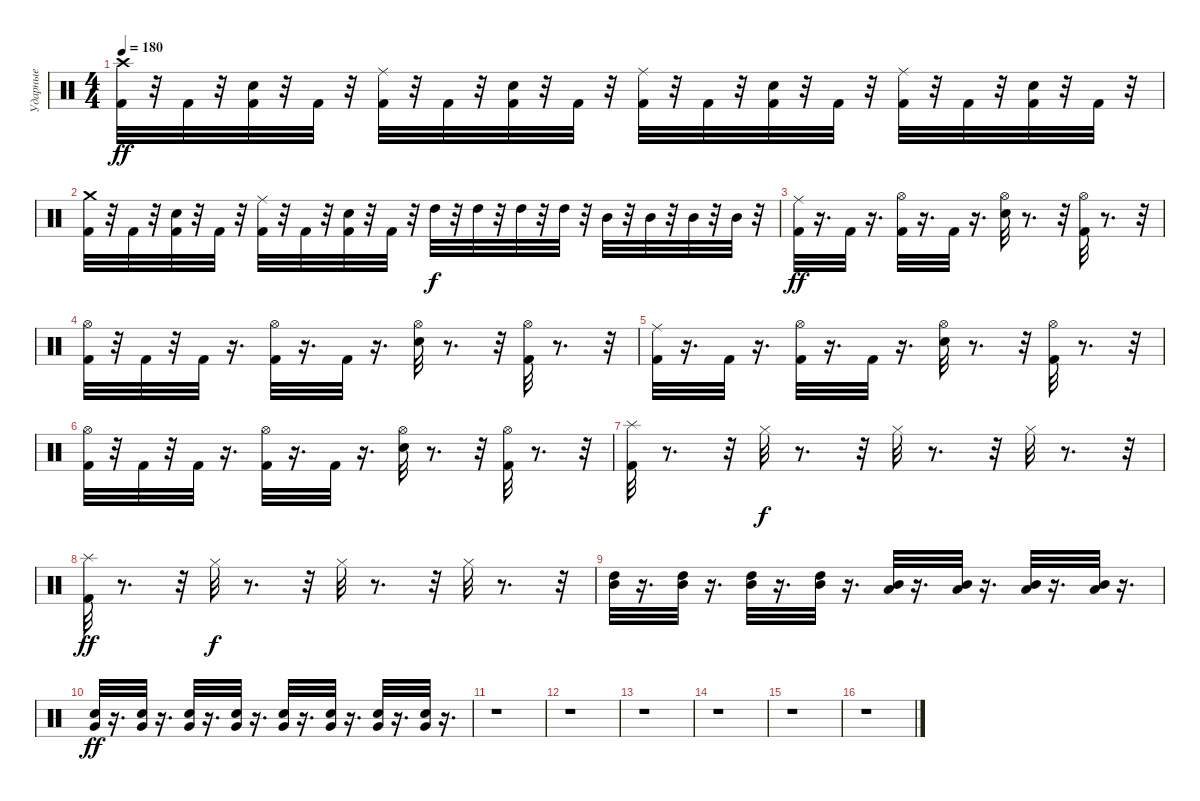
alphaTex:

\track ("Ударные" "Ударные") {instrument percussion}
\staff {score}
\articulation defaults
\ts (4 4)
\tempo 180
\clef neutral
\ks c
("Crash high (hit)" "Kick (hit) 2").32{dy ff} r.32 "Kick (hit) 2".32 r.32 ("Kick (hit) 2" "Electric Snare (hit)").32 r.32 "Kick (hit) 2".32 r.32 ("Ride (middle)" "Kick (hit) 2").32 r.32 "Kick (hit) 2".32 r.32 ("Electric Snare (hit)" "Kick (hit) 2").32 r.32 "Kick (hit) 2".32 r.32 ("Ride (middle)" "Kick (hit) 2").32 r.32 "Kick (hit) 2".32 r.32 ("Electric Snare (hit)" "Kick (hit) 2").32 r.32 "Kick (hit) 2".32 r.32 ("Ride (middle)" "Kick (hit) 2").32 r.32 "Kick (hit) 2".32 r.32 ("Electric Snare (hit)" "Kick (hit) 2").32 r.32 "Kick (hit) 2".32 r.32 |
("Crash medium (hit)" "Kick (hit) 2").32 r.32 "Kick (hit) 2".32 r.32 ("Kick (hit) 2" "Electric Snare (hit)").32 r.32 "Kick (hit) 2".32 r.32 ("Ride (middle)" "Kick (hit) 2").32 r.32 "Kick (hit) 2".32 r.32 ("Electric Snare (hit)" "Kick (hit) 2").32 r.32 "Kick (hit) 2".32 r.32 "High Tom (hit)".32{dy f} r.32 "High Tom (hit)".32 r.32 "High Tom (hit)".32 r.32 "High Tom (hit)".32 r.32 "Mid Tom (hit)".32 r.32 "Mid Tom (hit)".32 r.32 "Mid Tom (hit)".32 r.32 "Mid Tom (hit)".32 r.32 |
("Ride (middle)" "Kick (hit) 2").32{dy ff} r.16{d} "Kick (hit) 2".32 r.16{d} ("Hi-Hat (open)" "Kick (hit) 2").32 r.16{d} "Kick (hit) 2".32 r.16{d} ("Hi-Hat (open)" "Electric Snare (hit)").32 r.8{d} r.32 ("Hi-Hat (open)" "Kick (hit) 2").32 r.8{d} r.32 |
("Hi-Hat (open)" "Kick (hit) 2").32 r.32 "Kick (hit) 2".32 r.32 "Kick (hit) 2".32 r.16{d} ("Hi-Hat (open)" "Kick (hit) 2").32 r.16{d} "Kick (hit) 2".32 r.16{d} ("Hi-Hat (open)" "Electric Snare (hit)").32 r.8{d} r.32 ("Hi-Hat (open)" "Kick (hit) 2").32 r.8{d} r.32 |
("Ride (middle)" "Kick (hit) 2").32 r.16{d} "Kick (hit) 2".32 r.16{d} ("Hi-Hat (open)" "Kick (hit) 2").32 r.16{d} "Kick (hit) 2".32 r.16{d} ("Hi-Hat (open)" "Electric Snare (hit)").32 r.8{d} r.32 ("Hi-Hat (open)" "Kick (hit) 2").32 r.8{d} r.32 |
("Hi-Hat (open)" "Kick (hit) 2").32 r.32 "Kick (hit) 2".32 r.32 "Kick (hit) 2".32 r.16{d} ("Hi-Hat (open)" "Kick (hit) 2").32 r.16{d} "Kick (hit) 2".32 r.16{d} ("Hi-Hat (open)" "Electric Snare (hit)").32 r.8{d} r.32 ("Hi-Hat (open)" "Kick (hit) 2").32 r.8{d} r.32 |
("Splash (hit)" "Kick (hit) 2").32 r.8{d} r.32 "Hi-Hat (closed)".32{dy f} r.8{d} r.32 "Hi-Hat (closed)".32 r.8{d} r.32 "Hi-Hat (closed)".32 r.8{d} r.32 |
("Splash (hit)" "Kick (hit) 2").32{dy ff} r.8{d} r.32 "Hi-Hat (closed)".32{dy f} r.8{d} r.32 "Hi-Hat (closed)".32 r.8{d} r.32 "Hi-Hat (closed)".32 r.8{d} r.32 |
("Mid Tom (hit)" "High Tom (hit)").32 r.16{d} ("Mid Tom (hit)" "High Tom (hit)").32 r.16{d} ("Mid Tom (hit)" "High Tom (hit)").32 r.16{d} ("Mid Tom (hit)" "High Tom (hit)").32 r.16{d} ("Low Tom (hit)" "Mid Tom (hit)").32 r.16{d} ("Low Tom (hit)" "Mid Tom (hit)").32 r.16{d} ("Low Tom (hit)" "Mid Tom (hit)").32 r.16{d} ("Low Tom (hit)" "Mid Tom (hit)").32 r.16{d} |
("Very Low Tom (hit)" "Electric Snare (hit)").32{dy ff} r.16{d} ("Very Low Tom (hit)" "Electric Snare (hit)").32 r.16{d} ("Very Low Tom (hit)" "Electric Snare (hit)").32 r.16{d} ("Very Low Tom (hit)" "Electric Snare (hit)").32 r.16{d} ("Electric Snare (hit)" "Very Low Tom (hit)").32 r.16{d} ("Electric Snare (hit)" "Very Low Tom (hit)").32 r.16{d} ("Electric Snare (hit)" "Very Low Tom (hit)").32 r.16{d} ("Electric Snare (hit)" "Very Low Tom (hit)").32 r.16{d} |
r.1 |
r.1 |
r.1 |
r.1 |
r.1 |
r.1
